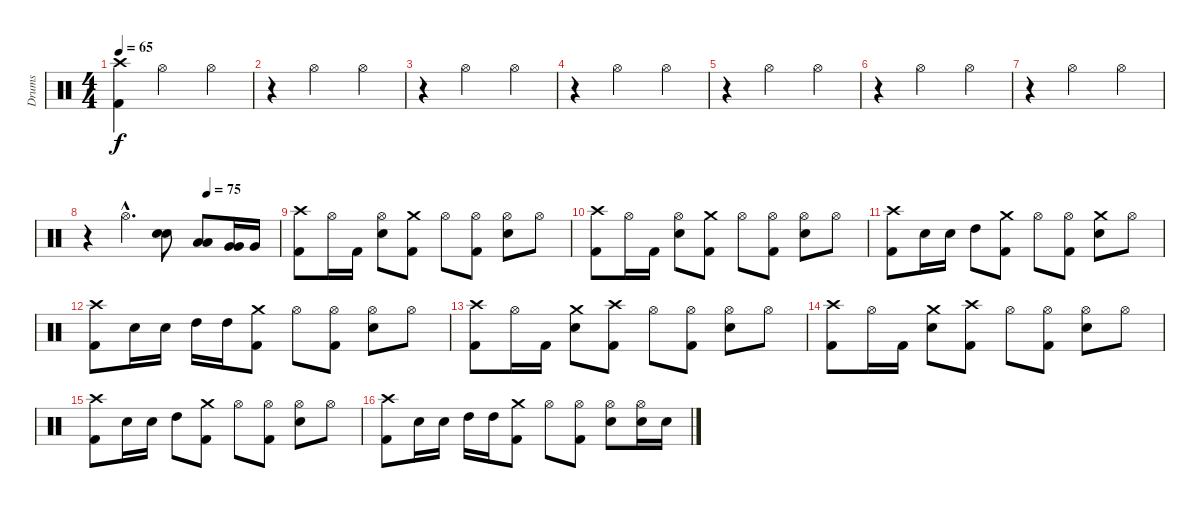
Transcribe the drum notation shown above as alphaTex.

\track ("Drums" "Drums") {instrument percussion}
\staff {score}
\articulation defaults
\ts (4 4)
\tempo 65
\clef neutral
\ks c
("Crash high (hit)" "Kick (hit) 2").4{dy f} "Hi-Hat (open)".2 "Hi-Hat (open)".4 |
r.4 "Hi-Hat (open)".2 "Hi-Hat (open)".4 |
r.4 "Hi-Hat (open)".2 "Hi-Hat (open)".4 |
r.4 "Hi-Hat (open)".2 "Hi-Hat (open)".4 |
r.4 "Hi-Hat (open)".2 "Hi-Hat (open)".4 |
r.4 "Hi-Hat (open)".2 "Hi-Hat (open)".4 |
r.4 "Hi-Hat (open)".2 "Hi-Hat (open)".4 |
\tempo (75 0.625)
r.4 "Hi-Hat (open)"{hac}.4{d} ("Electric Snare (hit)" "Electric Snare (hit)").8{bu 60} ("Low Tom (hit)" "Low Tom (hit)").8{bu 60} ("Very Low Tom (hit)" "Very Low Tom (hit)").16{bu 60} "Very Low Tom (hit)".16 |
("Crash high (hit)" "Kick (hit) 2").8 "Hi-Hat (open)".16 "Kick (hit) 2".16 ("Hi-Hat (open)" "Electric Snare (hit)").8 ("Crash medium (hit)" "Kick (hit) 2").8 "Hi-Hat (open)".8 ("Hi-Hat (open)" "Kick (hit) 2").8 ("Hi-Hat (open)" "Electric Snare (hit)").8 "Hi-Hat (open)".8 |
("Crash high (hit)" "Kick (hit) 2").8 "Hi-Hat (open)".16 "Kick (hit) 2".16 ("Hi-Hat (open)" "Electric Snare (hit)").8 ("Crash medium (hit)" "Kick (hit) 2").8 "Hi-Hat (open)".8 ("Hi-Hat (open)" "Kick (hit) 2").8 ("Hi-Hat (open)" "Electric Snare (hit)").8 "Hi-Hat (open)".8 |
("Crash high (hit)" "Kick (hit) 2").8 "Electric Snare (hit)".16 "Electric Snare (hit)".16 "High Tom (hit)".8 ("Crash medium (hit)" "Kick (hit) 2").8 "Hi-Hat (open)".8 ("Hi-Hat (open)" "Kick (hit) 2").8 ("Crash medium (hit)" "Electric Snare (hit)").8 "Hi-Hat (open)".8 |
("Crash high (hit)" "Kick (hit) 2").8 "Electric Snare (hit)".16 "Electric Snare (hit)".16 "High Tom (hit)".16 "High Tom (hit)".16 ("Crash medium (hit)" "Kick (hit) 2").8 "Hi-Hat (open)".8 ("Hi-Hat (open)" "Kick (hit) 2").8 ("Hi-Hat (open)" "Electric Snare (hit)").8 "Hi-Hat (open)".8 |
("Crash high (hit)" "Kick (hit) 2").8 "Hi-Hat (open)".16 "Kick (hit) 2".16 ("Crash medium (hit)" "Electric Snare (hit)").8 ("Crash high (hit)" "Kick (hit) 2").8 "Hi-Hat (open)".8 ("Hi-Hat (open)" "Kick (hit) 2").8 ("Hi-Hat (open)" "Electric Snare (hit)").8 "Hi-Hat (open)".8 |
("Crash high (hit)" "Kick (hit) 2").8 "Hi-Hat (open)".16 "Kick (hit) 2".16 ("Crash medium (hit)" "Electric Snare (hit)").8 ("Crash high (hit)" "Kick (hit) 2").8 "Hi-Hat (open)".8 ("Hi-Hat (open)" "Kick (hit) 2").8 ("Hi-Hat (open)" "Electric Snare (hit)").8 "Hi-Hat (open)".8 |
("Crash high (hit)" "Kick (hit) 2").8 "Electric Snare (hit)".16 "Electric Snare (hit)".16 "High Tom (hit)".8 ("Crash medium (hit)" "Kick (hit) 2").8 "Hi-Hat (open)".8 ("Hi-Hat (open)" "Kick (hit) 2").8 ("Hi-Hat (open)" "Electric Snare (hit)").8 "Hi-Hat (open)".8 |
("Crash high (hit)" "Kick (hit) 2").8 "Electric Snare (hit)".16 "Electric Snare (hit)".16 "High Tom (hit)".16 "High Tom (hit)".16 ("Crash medium (hit)" "Kick (hit) 2").8 "Hi-Hat (open)".8 ("Hi-Hat (open)" "Kick (hit) 2").8 ("Hi-Hat (open)" "Electric Snare (hit)").8 ("Hi-Hat (open)" "Electric Snare (hit)").16 "Electric Snare (hit)".16
